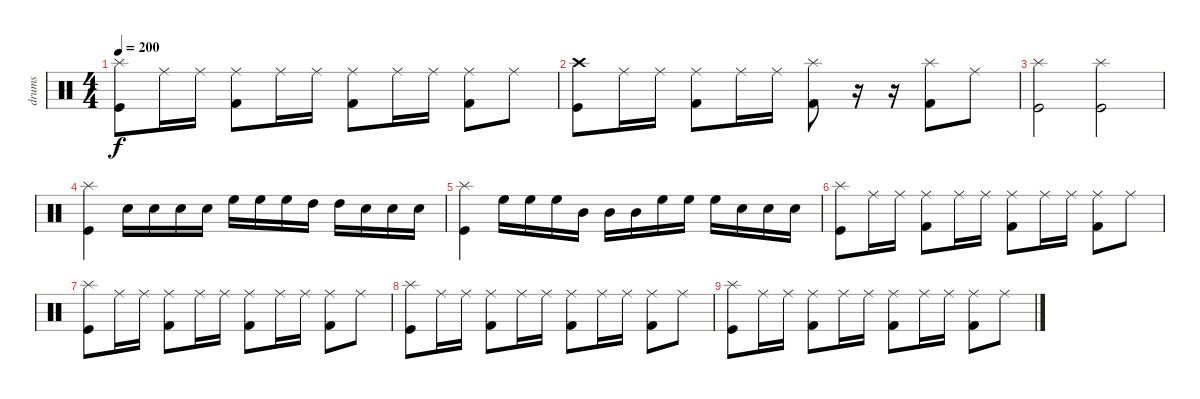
\track ("drums" "drums") {instrument percussion}
\staff {score}
\articulation defaults
\ts (4 4)
\tempo 200
\clef neutral
\ks c
("Splash (hit)" "Kick (hit)").8{dy f} "Ride (middle)".16 "Ride (middle)".16 ("Ride (middle)" "Kick (hit) 2").8 "Ride (middle)".16 "Ride (middle)".16 ("Ride (middle)" "Kick (hit) 2").8 "Ride (middle)".16 "Ride (middle)".16 ("Ride (middle)" "Kick (hit) 2").8 "Ride (middle)".8 |
("Crash high (hit)" "Kick (hit)").8 "Ride (middle)".16 "Ride (middle)".16 ("Ride (middle)" "Kick (hit) 2").8 "Ride (middle)".16 "Ride (middle)".16 ("Splash (hit)" "Kick (hit) 2").8 r.16 r.16 ("Splash (hit)" "Kick (hit) 2").8 "Ride (middle)".8 |
("Kick (hit)" "Splash (hit)").2 ("Kick (hit)" "Splash (hit)").2 |
("Kick (hit)" "Splash (hit)").4 "Electric Snare (hit)".16 "Electric Snare (hit)".16 "Electric Snare (hit)".16 "Electric Snare (hit)".16 "High Floor Tom (hit)".16 "High Floor Tom (hit)".16 "High Floor Tom (hit)".16 "High Tom (hit)".16 "High Tom (hit)".16 "Electric Snare (hit)".16 "Electric Snare (hit)".16 "Electric Snare (hit)".16 |
("Kick (hit)" "Splash (hit)").4 "High Floor Tom (hit)".16 "High Floor Tom (hit)".16 "High Floor Tom (hit)".16 "Mid Tom (hit)".16 "Mid Tom (hit)".16 "Mid Tom (hit)".16 "High Floor Tom (hit)".16 "High Floor Tom (hit)".16 "High Floor Tom (hit)".16 "Electric Snare (hit)".16 "Electric Snare (hit)".16 "Electric Snare (hit)".16 |
("Splash (hit)" "Kick (hit)").8 "Ride (middle)".16 "Ride (middle)".16 ("Ride (middle)" "Kick (hit) 2").8 "Ride (middle)".16 "Ride (middle)".16 ("Ride (middle)" "Kick (hit) 2").8 "Ride (middle)".16 "Ride (middle)".16 ("Ride (middle)" "Kick (hit) 2").8 "Ride (middle)".8 |
("Splash (hit)" "Kick (hit)").8 "Ride (middle)".16 "Ride (middle)".16 ("Ride (middle)" "Kick (hit) 2").8 "Ride (middle)".16 "Ride (middle)".16 ("Ride (middle)" "Kick (hit) 2").8 "Ride (middle)".16 "Ride (middle)".16 ("Ride (middle)" "Kick (hit) 2").8 "Ride (middle)".8 |
("Splash (hit)" "Kick (hit)").8 "Ride (middle)".16 "Ride (middle)".16 ("Ride (middle)" "Kick (hit) 2").8 "Ride (middle)".16 "Ride (middle)".16 ("Ride (middle)" "Kick (hit) 2").8 "Ride (middle)".16 "Ride (middle)".16 ("Ride (middle)" "Kick (hit) 2").8 "Ride (middle)".8 |
("Splash (hit)" "Kick (hit)").8 "Ride (middle)".16 "Ride (middle)".16 ("Ride (middle)" "Kick (hit) 2").8 "Ride (middle)".16 "Ride (middle)".16 ("Ride (middle)" "Kick (hit) 2").8 "Ride (middle)".16 "Ride (middle)".16 ("Ride (middle)" "Kick (hit) 2").8 "Ride (middle)".8
